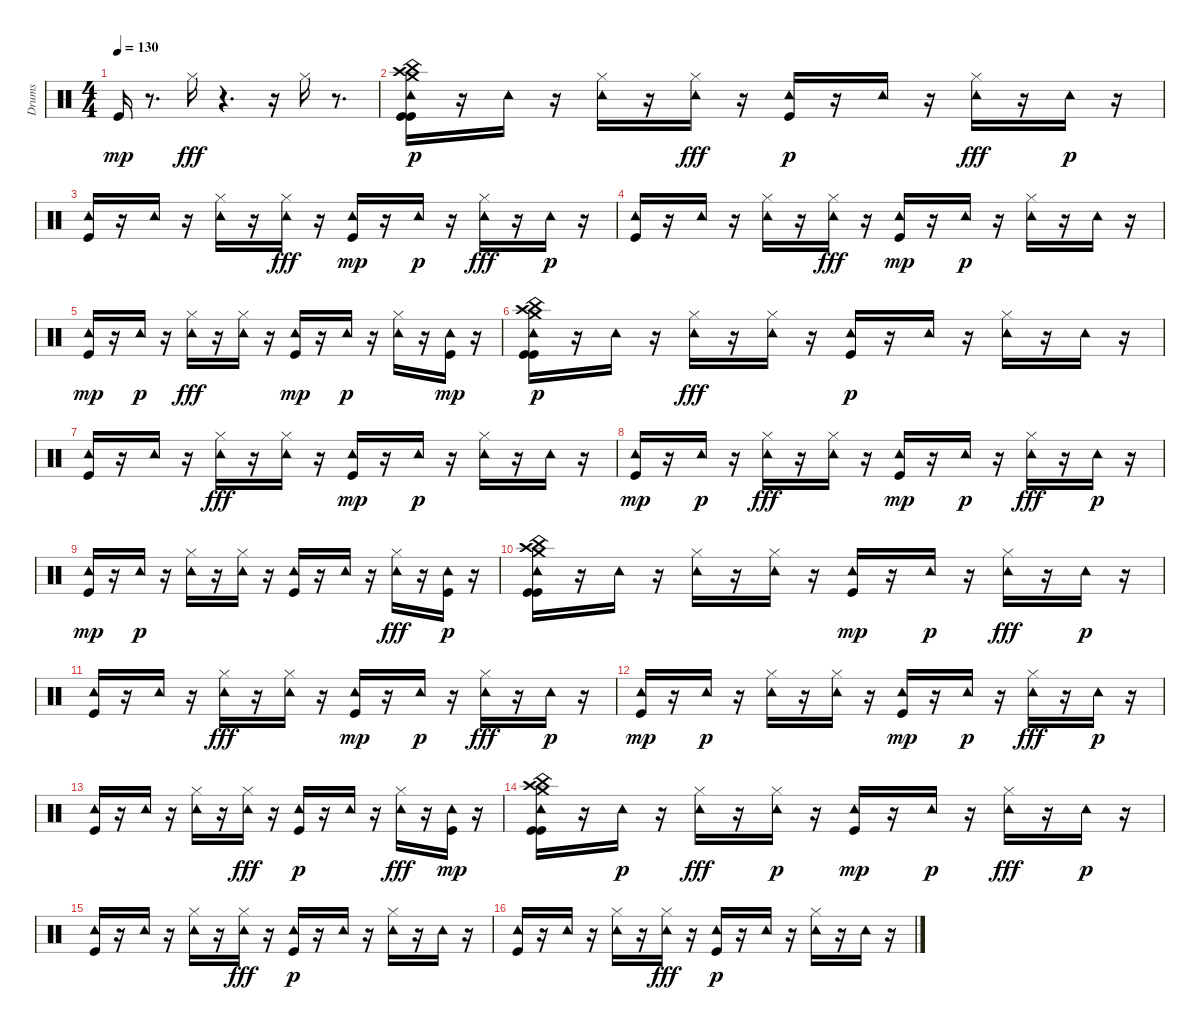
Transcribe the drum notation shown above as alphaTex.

\track ("Drums" "Drums") {instrument percussion}
\staff {score}
\articulation defaults
\ts (4 4)
\tempo 130
\clef neutral
\ks c "Kick (hit)".16{dy mp}
r.8{d} "Hi-Hat (closed)".16{dy fff} r.4{d} r.16 "Hi-Hat (closed)".16 r.8{d} |
("Kick (hit)" "Kick (hit)" "Crash medium (hit)" "Tambourine (hit)" "China (hit)" "Crash high (hit)").16{dy p} r.16 "Tambourine (hit)".16 r.16 ("Hi-Hat (closed)" "Tambourine (hit)").16 r.16 ("Tambourine (hit)" "Hi-Hat (closed)").16{dy fff} r.16 ("Kick (hit)" "Tambourine (hit)").16{dy p} r.16 "Tambourine (hit)".16 r.16 ("Tambourine (hit)" "Hi-Hat (closed)").16{dy fff} r.16 "Tambourine (hit)".16{dy p} r.16 |
("Kick (hit)" "Tambourine (hit)").16 r.16 "Tambourine (hit)".16 r.16 ("Hi-Hat (closed)" "Tambourine (hit)").16 r.16 ("Tambourine (hit)" "Hi-Hat (closed)").16{dy fff} r.16 ("Tambourine (hit)" "Kick (hit)").16{dy mp} r.16 "Tambourine (hit)".16{dy p} r.16 ("Tambourine (hit)" "Hi-Hat (closed)").16{dy fff} r.16 "Tambourine (hit)".16{dy p} r.16 |
("Kick (hit)" "Tambourine (hit)").16 r.16 "Tambourine (hit)".16 r.16 ("Hi-Hat (closed)" "Tambourine (hit)").16 r.16 ("Tambourine (hit)" "Hi-Hat (closed)").16{dy fff} r.16 ("Tambourine (hit)" "Kick (hit)").16{dy mp} r.16 "Tambourine (hit)".16{dy p} r.16 ("Hi-Hat (closed)" "Tambourine (hit)").16 r.16 "Tambourine (hit)".16 r.16 |
("Tambourine (hit)" "Kick (hit)").16{dy mp} r.16 "Tambourine (hit)".16{dy p} r.16 ("Tambourine (hit)" "Hi-Hat (closed)").16{dy fff} r.16 ("Tambourine (hit)" "Hi-Hat (closed)").16 r.16 ("Tambourine (hit)" "Kick (hit)").16{dy mp} r.16 "Tambourine (hit)".16{dy p} r.16 ("Hi-Hat (closed)" "Tambourine (hit)").16 r.16 ("Tambourine (hit)" "Kick (hit)").16{dy mp} r.16 |
("Crash high (hit)" "Kick (hit)" "Kick (hit)" "China (hit)" "Tambourine (hit)" "Crash medium (hit)").16{dy p} r.16 "Tambourine (hit)".16 r.16 ("Tambourine (hit)" "Hi-Hat (closed)").16{dy fff} r.16 ("Tambourine (hit)" "Hi-Hat (closed)").16 r.16 ("Kick (hit)" "Tambourine (hit)").16{dy p} r.16 "Tambourine (hit)".16 r.16 ("Hi-Hat (closed)" "Tambourine (hit)").16 r.16 "Tambourine (hit)".16 r.16 |
("Kick (hit)" "Tambourine (hit)").16 r.16 "Tambourine (hit)".16 r.16 ("Tambourine (hit)" "Hi-Hat (closed)").16{dy fff} r.16 ("Tambourine (hit)" "Hi-Hat (closed)").16 r.16 ("Tambourine (hit)" "Kick (hit)").16{dy mp} r.16 "Tambourine (hit)".16{dy p} r.16 ("Hi-Hat (closed)" "Tambourine (hit)").16 r.16 "Tambourine (hit)".16 r.16 |
("Tambourine (hit)" "Kick (hit)").16{dy mp} r.16 "Tambourine (hit)".16{dy p} r.16 ("Tambourine (hit)" "Hi-Hat (closed)").16{dy fff} r.16 ("Tambourine (hit)" "Hi-Hat (closed)").16 r.16 ("Tambourine (hit)" "Kick (hit)").16{dy mp} r.16 "Tambourine (hit)".16{dy p} r.16 ("Tambourine (hit)" "Hi-Hat (closed)").16{dy fff} r.16 "Tambourine (hit)".16{dy p} r.16 |
("Tambourine (hit)" "Kick (hit)").16{dy mp} r.16 "Tambourine (hit)".16{dy p} r.16 ("Hi-Hat (closed)" "Tambourine (hit)").16 r.16 ("Hi-Hat (closed)" "Tambourine (hit)").16 r.16 ("Kick (hit)" "Tambourine (hit)").16 r.16 "Tambourine (hit)".16 r.16 ("Tambourine (hit)" "Hi-Hat (closed)").16{dy fff} r.16 ("Kick (hit)" "Tambourine (hit)").16{dy p} r.16 |
("Crash high (hit)" "Tambourine (hit)" "Crash medium (hit)" "Kick (hit)" "Kick (hit)" "China (hit)").16 r.16 "Tambourine (hit)".16 r.16 ("Hi-Hat (closed)" "Tambourine (hit)").16 r.16 ("Hi-Hat (closed)" "Tambourine (hit)").16 r.16 ("Tambourine (hit)" "Kick (hit)").16{dy mp} r.16 "Tambourine (hit)".16{dy p} r.16 ("Tambourine (hit)" "Hi-Hat (closed)").16{dy fff} r.16 "Tambourine (hit)".16{dy p} r.16 |
("Kick (hit)" "Tambourine (hit)").16 r.16 "Tambourine (hit)".16 r.16 ("Tambourine (hit)" "Hi-Hat (closed)").16{dy fff} r.16 ("Tambourine (hit)" "Hi-Hat (closed)").16 r.16 ("Tambourine (hit)" "Kick (hit)").16{dy mp} r.16 "Tambourine (hit)".16{dy p} r.16 ("Tambourine (hit)" "Hi-Hat (closed)").16{dy fff} r.16 "Tambourine (hit)".16{dy p} r.16 |
("Tambourine (hit)" "Kick (hit)").16{dy mp} r.16 "Tambourine (hit)".16{dy p} r.16 ("Hi-Hat (closed)" "Tambourine (hit)").16 r.16 ("Hi-Hat (closed)" "Tambourine (hit)").16 r.16 ("Tambourine (hit)" "Kick (hit)").16{dy mp} r.16 "Tambourine (hit)".16{dy p} r.16 ("Tambourine (hit)" "Hi-Hat (closed)").16{dy fff} r.16 "Tambourine (hit)".16{dy p} r.16 |
("Kick (hit)" "Tambourine (hit)").16 r.16 "Tambourine (hit)".16 r.16 ("Hi-Hat (closed)" "Tambourine (hit)").16 r.16 ("Tambourine (hit)" "Hi-Hat (closed)").16{dy fff} r.16 ("Kick (hit)" "Tambourine (hit)").16{dy p} r.16 "Tambourine (hit)".16 r.16 ("Tambourine (hit)" "Hi-Hat (closed)").16{dy fff} r.16 ("Tambourine (hit)" "Kick (hit)").16{dy mp} r.16 |
("Crash medium (hit)" "Crash high (hit)" "Tambourine (hit)" "Kick (hit)" "China (hit)" "Kick (hit)").16 r.16 "Tambourine (hit)".16{dy p} r.16 ("Tambourine (hit)" "Hi-Hat (closed)").16{dy fff} r.16 ("Hi-Hat (closed)" "Tambourine (hit)").16{dy p} r.16 ("Tambourine (hit)" "Kick (hit)").16{dy mp} r.16 "Tambourine (hit)".16{dy p} r.16 ("Tambourine (hit)" "Hi-Hat (closed)").16{dy fff} r.16 "Tambourine (hit)".16{dy p} r.16 |
("Kick (hit)" "Tambourine (hit)").16 r.16 "Tambourine (hit)".16 r.16 ("Hi-Hat (closed)" "Tambourine (hit)").16 r.16 ("Tambourine (hit)" "Hi-Hat (closed)").16{dy fff} r.16 ("Kick (hit)" "Tambourine (hit)").16{dy p} r.16 "Tambourine (hit)".16 r.16 ("Hi-Hat (closed)" "Tambourine (hit)").16 r.16 "Tambourine (hit)".16 r.16 |
("Kick (hit)" "Tambourine (hit)").16 r.16 "Tambourine (hit)".16 r.16 ("Hi-Hat (closed)" "Tambourine (hit)").16 r.16 ("Tambourine (hit)" "Hi-Hat (closed)").16{dy fff} r.16 ("Kick (hit)" "Tambourine (hit)").16{dy p} r.16 "Tambourine (hit)".16 r.16 ("Hi-Hat (closed)" "Tambourine (hit)").16 r.16 "Tambourine (hit)".16 r.16
